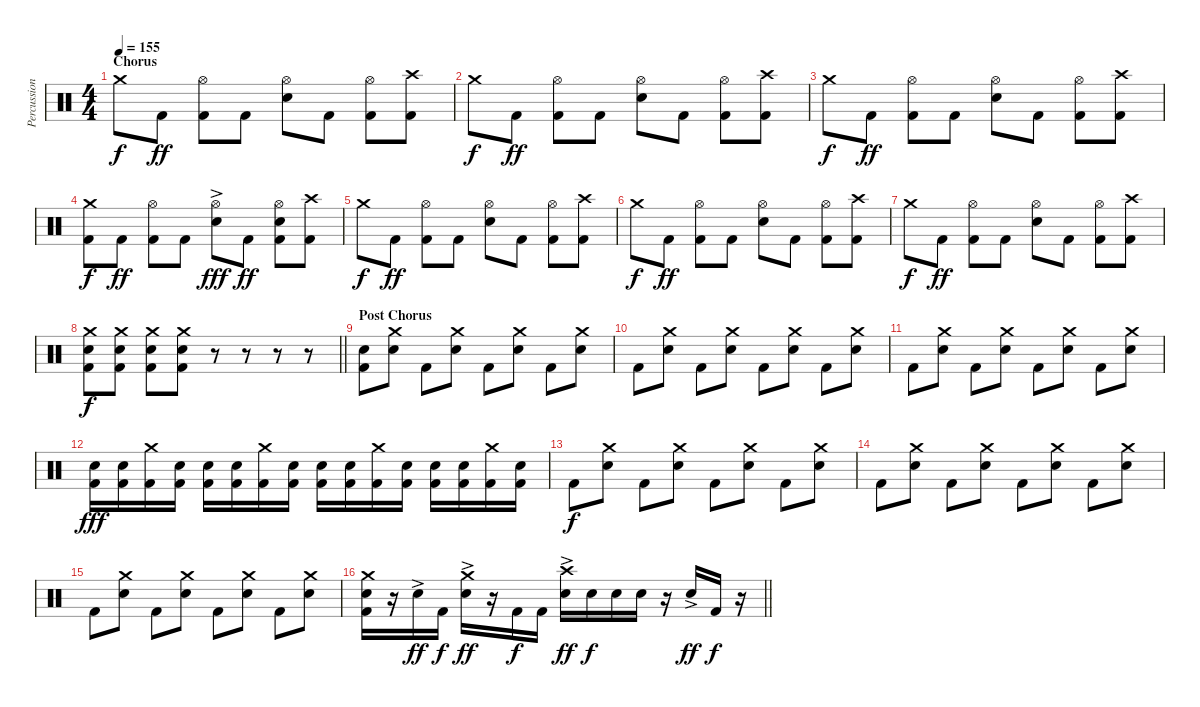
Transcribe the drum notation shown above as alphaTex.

\track ("Percussion (Mike Oliver)" "Percussion") {instrument percussion}
\staff {score}
\articulation defaults
\ts (4 4)
\section ("" "Chorus")
\tempo 155
\clef neutral
\ks c "Crash medium (hit)".8{dy f} "Kick (hit) 2".8{dy ff}
("Hi-Hat (open)" "Kick (hit) 2").8 "Kick (hit) 2".8 ("Hi-Hat (open)" "Snare (hit) 2").8 "Kick (hit) 2".8 ("Hi-Hat (open)" "Kick (hit) 2").8 ("Crash high (hit)" "Kick (hit) 2").8 |
"Crash medium (hit)".8{dy f} "Kick (hit) 2".8{dy ff} ("Hi-Hat (open)" "Kick (hit) 2").8 "Kick (hit) 2".8 ("Hi-Hat (open)" "Snare (hit) 2").8 "Kick (hit) 2".8 ("Hi-Hat (open)" "Kick (hit) 2").8 ("Crash high (hit)" "Kick (hit) 2").8 |
"Crash medium (hit)".8{dy f} "Kick (hit) 2".8{dy ff} ("Hi-Hat (open)" "Kick (hit) 2").8 "Kick (hit) 2".8 ("Hi-Hat (open)" "Snare (hit) 2").8 "Kick (hit) 2".8 ("Hi-Hat (open)" "Kick (hit) 2").8 ("Crash high (hit)" "Kick (hit) 2").8 |
("Crash medium (hit)" "Kick (hit) 2").8{dy f} "Kick (hit) 2".8{dy ff} ("Hi-Hat (open)" "Kick (hit) 2").8 "Kick (hit) 2".8 ("Hi-Hat (open)" "Snare (hit) 2"{ac}).8{dy fff} "Kick (hit) 2".8{dy ff} ("Hi-Hat (open)" "Snare (hit) 2" "Kick (hit) 2").8 ("Crash high (hit)" "Kick (hit) 2").8 |
"Crash medium (hit)".8{dy f} "Kick (hit) 2".8{dy ff} ("Hi-Hat (open)" "Kick (hit) 2").8 "Kick (hit) 2".8 ("Hi-Hat (open)" "Snare (hit) 2").8 "Kick (hit) 2".8 ("Hi-Hat (open)" "Kick (hit) 2").8 ("Crash high (hit)" "Kick (hit) 2").8 |
"Crash medium (hit)".8{dy f} "Kick (hit) 2".8{dy ff} ("Hi-Hat (open)" "Kick (hit) 2").8 "Kick (hit) 2".8 ("Hi-Hat (open)" "Snare (hit) 2").8 "Kick (hit) 2".8 ("Hi-Hat (open)" "Kick (hit) 2").8 ("Crash high (hit)" "Kick (hit) 2").8 |
"Crash medium (hit)".8{dy f} "Kick (hit) 2".8{dy ff} ("Hi-Hat (open)" "Kick (hit) 2").8 "Kick (hit) 2".8 ("Hi-Hat (open)" "Snare (hit) 2").8 "Kick (hit) 2".8 ("Hi-Hat (open)" "Kick (hit) 2").8 ("Crash high (hit)" "Kick (hit) 2").8 |
\barLineRight lightlight
("Crash medium (hit)" "Snare (hit) 2" "Kick (hit) 2").8{dy f} ("Crash medium (hit)" "Snare (hit) 2" "Kick (hit) 2").8 ("Crash medium (hit)" "Snare (hit) 2" "Kick (hit) 2").8 ("Crash medium (hit)" "Snare (hit) 2" "Kick (hit) 2").8 r.8 r.8 r.8 r.8 |
\section ("" "Post Chorus")
("Snare (hit) 2" "Kick (hit) 2").8 ("Crash medium (hit)" "Snare (hit) 2").8 "Kick (hit) 2".8 ("Crash medium (hit)" "Snare (hit) 2").8 "Kick (hit) 2".8 ("Crash medium (hit)" "Snare (hit) 2").8 "Kick (hit) 2".8 ("Crash medium (hit)" "Snare (hit) 2").8 |
"Kick (hit) 2".8 ("Crash medium (hit)" "Snare (hit) 2").8 "Kick (hit) 2".8 ("Crash medium (hit)" "Snare (hit) 2").8 "Kick (hit) 2".8 ("Crash medium (hit)" "Snare (hit) 2").8 "Kick (hit) 2".8 ("Crash medium (hit)" "Snare (hit) 2").8 |
"Kick (hit) 2".8 ("Crash medium (hit)" "Snare (hit) 2").8 "Kick (hit) 2".8 ("Crash medium (hit)" "Snare (hit) 2").8 "Kick (hit) 2".8 ("Crash medium (hit)" "Snare (hit) 2").8 "Kick (hit) 2".8 ("Crash medium (hit)" "Snare (hit) 2").8 |
("Snare (hit) 2" "Kick (hit) 2").16{dy fff} ("Snare (hit) 2" "Kick (hit) 2").16 ("Crash medium (hit)" "Kick (hit) 2").16 ("Snare (hit) 2" "Kick (hit) 2").16 ("Snare (hit) 2" "Kick (hit) 2").16 ("Snare (hit) 2" "Kick (hit) 2").16 ("Crash medium (hit)" "Kick (hit) 2").16 ("Snare (hit) 2" "Kick (hit) 2").16 ("Snare (hit) 2" "Kick (hit) 2").16 ("Snare (hit) 2" "Kick (hit) 2").16 ("Crash medium (hit)" "Kick (hit) 2").16 ("Snare (hit) 2" "Kick (hit) 2").16 ("Snare (hit) 2" "Kick (hit) 2").16 ("Snare (hit) 2" "Kick (hit) 2").16 ("Crash medium (hit)" "Kick (hit) 2").16 ("Snare (hit) 2" "Kick (hit) 2").16 |
"Kick (hit) 2".8{dy f} ("Crash medium (hit)" "Snare (hit) 2").8 "Kick (hit) 2".8 ("Crash medium (hit)" "Snare (hit) 2").8 "Kick (hit) 2".8 ("Crash medium (hit)" "Snare (hit) 2").8 "Kick (hit) 2".8 ("Crash medium (hit)" "Snare (hit) 2").8 |
"Kick (hit) 2".8 ("Crash medium (hit)" "Snare (hit) 2").8 "Kick (hit) 2".8 ("Crash medium (hit)" "Snare (hit) 2").8 "Kick (hit) 2".8 ("Crash medium (hit)" "Snare (hit) 2").8 "Kick (hit) 2".8 ("Crash medium (hit)" "Snare (hit) 2").8 |
"Kick (hit) 2".8 ("Crash medium (hit)" "Snare (hit) 2").8 "Kick (hit) 2".8 ("Crash medium (hit)" "Snare (hit) 2").8 "Kick (hit) 2".8 ("Crash medium (hit)" "Snare (hit) 2").8 "Kick (hit) 2".8 ("Crash medium (hit)" "Snare (hit) 2").8 |
\barLineRight lightlight
("Crash medium (hit)" "Snare (hit) 2" "Kick (hit) 2").16 r.16 "Snare (hit) 2"{ac}.16{dy ff} "Kick (hit) 2".16{dy f} ("Crash medium (hit)" "Snare (hit) 2"{ac}).16{dy ff} r.16 "Kick (hit) 2".16{dy f} "Kick (hit) 2".16 ("Crash high (hit)" "Snare (hit) 2"{ac}).16{dy ff} "Snare (hit) 2".16{dy f} "Snare (hit) 2".16 "Snare (hit) 2".16 r.16 "Snare (hit) 2"{ac}.16{dy ff} "Kick (hit) 2".16{dy f} r.16
